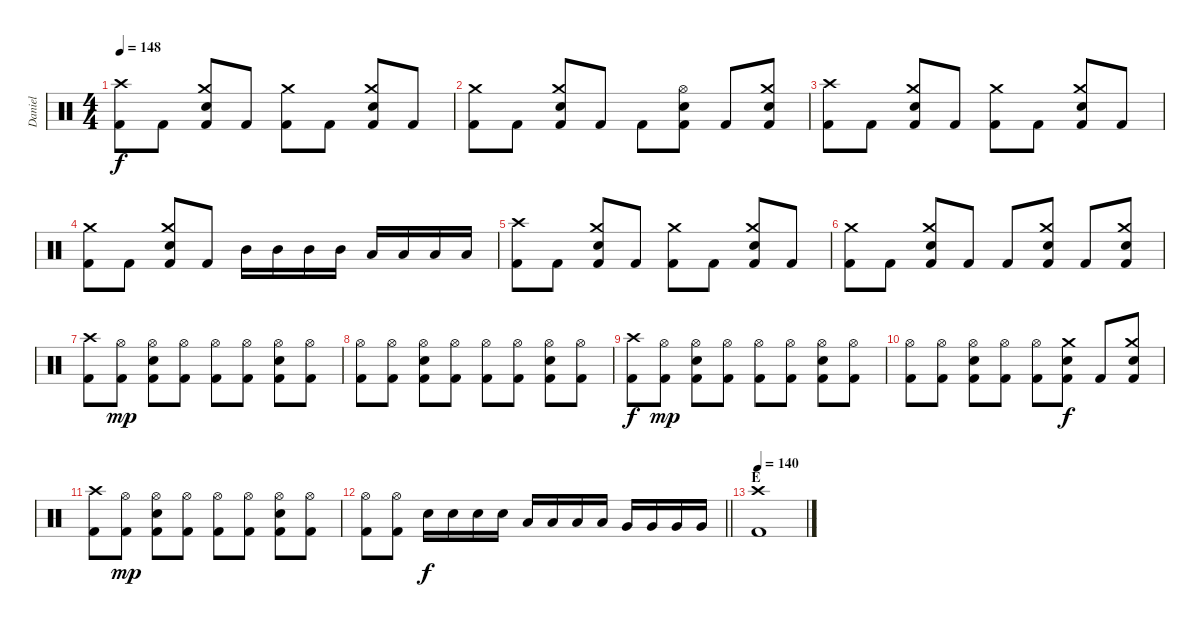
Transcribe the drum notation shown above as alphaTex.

\track ("Daniel" "Daniel") {instrument percussion}
\staff {score}
\articulation defaults
\ts (4 4)
\tempo 148
\clef neutral
\ks c
("Crash high (hit)" "Kick (hit) 2").8{dy f} "Kick (hit) 2".8 ("Crash medium (hit)" "Snare (hit) 2" "Kick (hit) 2").8 "Kick (hit) 2".8 ("Crash medium (hit)" "Kick (hit) 2").8 "Kick (hit) 2".8 ("Crash medium (hit)" "Snare (hit) 2" "Kick (hit) 2").8 "Kick (hit) 2".8 |
("Crash medium (hit)" "Kick (hit) 2").8 "Kick (hit) 2".8 ("Crash medium (hit)" "Snare (hit) 2" "Kick (hit) 2").8 "Kick (hit) 2".8 "Kick (hit) 2".8 ("Hi-Hat (open)" "Snare (hit) 2" "Kick (hit) 2").8 "Kick (hit) 2".8 ("Crash medium (hit)" "Snare (hit) 2" "Kick (hit) 2").8 |
("Crash high (hit)" "Kick (hit) 2").8 "Kick (hit) 2".8 ("Crash medium (hit)" "Snare (hit) 2" "Kick (hit) 2").8 "Kick (hit) 2".8 ("Crash medium (hit)" "Kick (hit) 2").8 "Kick (hit) 2".8 ("Crash medium (hit)" "Snare (hit) 2" "Kick (hit) 2").8 "Kick (hit) 2".8 |
("Crash medium (hit)" "Kick (hit) 2").8 "Kick (hit) 2".8 ("Crash medium (hit)" "Snare (hit) 2" "Kick (hit) 2").8 "Kick (hit) 2".8 "Mid Tom (hit)".16 "Mid Tom (hit)".16 "Mid Tom (hit)".16 "Mid Tom (hit)".16 "Low Tom (hit)".16 "Low Tom (hit)".16 "Low Tom (hit)".16 "Low Tom (hit)".16 |
("Crash high (hit)" "Kick (hit) 2").8 "Kick (hit) 2".8 ("Crash medium (hit)" "Snare (hit) 2" "Kick (hit) 2").8 "Kick (hit) 2".8 ("Crash medium (hit)" "Kick (hit) 2").8 "Kick (hit) 2".8 ("Crash medium (hit)" "Snare (hit) 2" "Kick (hit) 2").8 "Kick (hit) 2".8 |
("Crash medium (hit)" "Kick (hit) 2").8 "Kick (hit) 2".8 ("Crash medium (hit)" "Snare (hit) 2" "Kick (hit) 2").8 "Kick (hit) 2".8 "Kick (hit) 2".8 ("Crash medium (hit)" "Snare (hit) 2" "Kick (hit) 2").8 "Kick (hit) 2".8 ("Crash medium (hit)" "Snare (hit) 2" "Kick (hit) 2").8 |
("Crash high (hit)" "Kick (hit) 2").8 ("Hi-Hat (open)" "Kick (hit) 2").8{dy mp} ("Hi-Hat (open)" "Snare (hit) 2" "Kick (hit) 2").8 ("Hi-Hat (open)" "Kick (hit) 2").8 ("Hi-Hat (open)" "Kick (hit) 2").8 ("Hi-Hat (open)" "Kick (hit) 2").8 ("Hi-Hat (open)" "Snare (hit) 2" "Kick (hit) 2").8 ("Hi-Hat (open)" "Kick (hit) 2").8 |
("Hi-Hat (open)" "Kick (hit) 2").8 ("Hi-Hat (open)" "Kick (hit) 2").8 ("Hi-Hat (open)" "Snare (hit) 2" "Kick (hit) 2").8 ("Hi-Hat (open)" "Kick (hit) 2").8 ("Hi-Hat (open)" "Kick (hit) 2").8 ("Hi-Hat (open)" "Kick (hit) 2").8 ("Hi-Hat (open)" "Snare (hit) 2" "Kick (hit) 2").8 ("Hi-Hat (open)" "Kick (hit) 2").8 |
("Crash high (hit)" "Kick (hit) 2").8{dy f} ("Hi-Hat (open)" "Kick (hit) 2").8{dy mp} ("Hi-Hat (open)" "Snare (hit) 2" "Kick (hit) 2").8 ("Hi-Hat (open)" "Kick (hit) 2").8 ("Hi-Hat (open)" "Kick (hit) 2").8 ("Hi-Hat (open)" "Kick (hit) 2").8 ("Hi-Hat (open)" "Snare (hit) 2" "Kick (hit) 2").8 ("Hi-Hat (open)" "Kick (hit) 2").8 |
("Hi-Hat (open)" "Kick (hit) 2").8 ("Hi-Hat (open)" "Kick (hit) 2").8 ("Hi-Hat (open)" "Snare (hit) 2" "Kick (hit) 2").8 ("Hi-Hat (open)" "Kick (hit) 2").8 ("Hi-Hat (open)" "Kick (hit) 2").8 ("Crash medium (hit)" "Snare (hit) 2" "Kick (hit) 2").8{dy f} "Kick (hit) 2".8 ("Crash medium (hit)" "Snare (hit) 2" "Kick (hit) 2").8 |
("Crash high (hit)" "Kick (hit) 2").8 ("Hi-Hat (open)" "Kick (hit) 2").8{dy mp} ("Hi-Hat (open)" "Snare (hit) 2" "Kick (hit) 2").8 ("Hi-Hat (open)" "Kick (hit) 2").8 ("Hi-Hat (open)" "Kick (hit) 2").8 ("Hi-Hat (open)" "Kick (hit) 2").8 ("Hi-Hat (open)" "Snare (hit) 2" "Kick (hit) 2").8 ("Hi-Hat (open)" "Kick (hit) 2").8 |
\barLineRight lightlight
("Hi-Hat (open)" "Kick (hit) 2").8 ("Hi-Hat (open)" "Kick (hit) 2").8 "Snare (hit) 2".16{dy f} "Snare (hit) 2".16 "Snare (hit) 2".16 "Snare (hit) 2".16 "Low Tom (hit)".16 "Low Tom (hit)".16 "Low Tom (hit)".16 "Low Tom (hit)".16 "Very Low Tom (hit)".16 "Very Low Tom (hit)".16 "Very Low Tom (hit)".16 "Very Low Tom (hit)".16 |
\section ("" "E")
\tempo 140
("Crash high (hit)" "Kick (hit) 2").1
